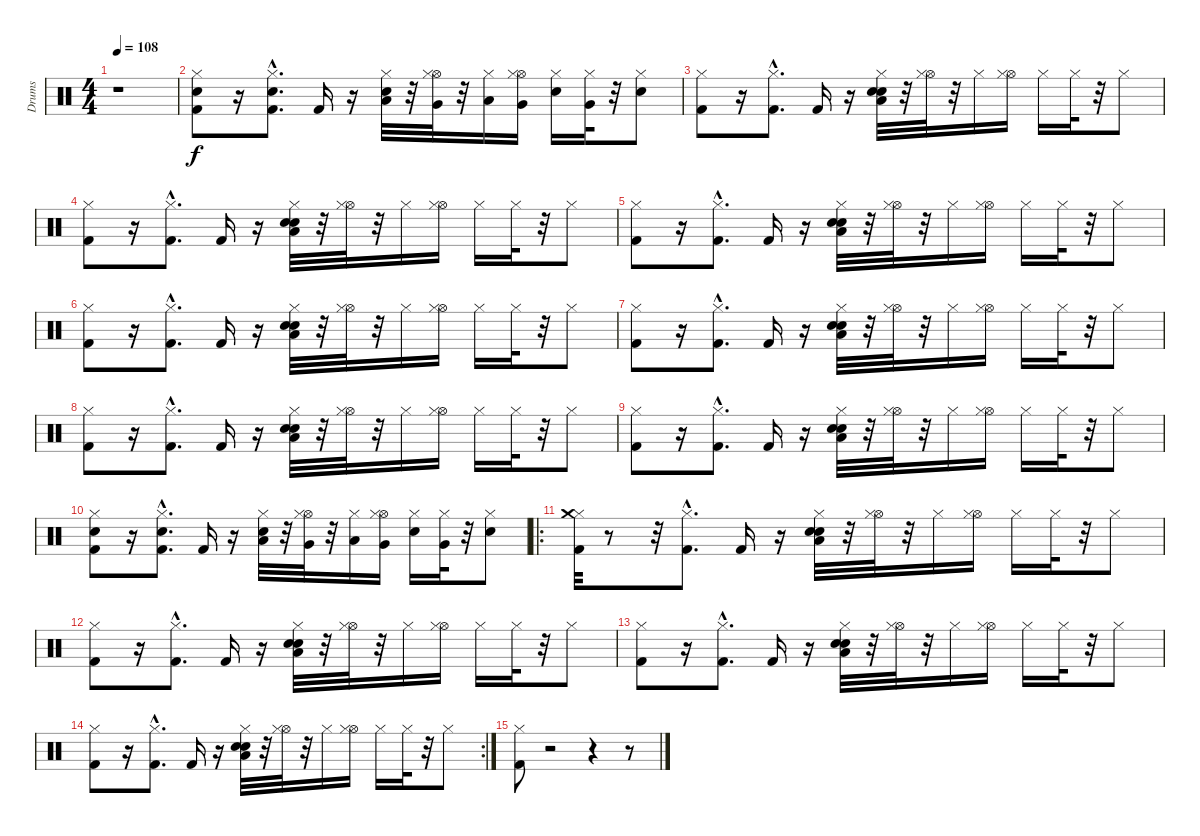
\track ("Drums" "Drums") {instrument percussion}
\staff {score}
\articulation defaults
\ts (4 4)
\tempo 108
\clef neutral
\ks c
r.1{dy f} |
("Kick (hit) 2" "Snare (hit) 2" "Hi-Hat (closed)").8 r.16 ("Kick (hit) 2"{hac} "Electric Snare (hit)"{hac} "Hi-Hat (closed)"{hac}).8{d} "Kick (hit) 2".16 r.16 ("Snare (hit) 2" "Low Tom (hit)" "Hi-Hat (closed)").32 r.32 ("Very Low Tom (hit)" "Hi-Hat (open)" "Hi-Hat (closed)").32 r.32 ("Hi-Hat (closed)" "Low Floor Tom (hit)").16 ("Hi-Hat (open)" "Very Low Tom (hit)" "Hi-Hat (closed)").16 ("Electric Snare (hit)" "Hi-Hat (closed)").16 ("Very Low Tom (hit)" "Hi-Hat (closed)").32 r.32 ("Snare (hit) 2" "Hi-Hat (closed)").8 |
("Hi-Hat (closed)" "Kick (hit) 2").8 r.16 ("Kick (hit) 2"{hac} "Hi-Hat (closed)"{hac}).8{d} "Kick (hit) 2".16 r.16 ("Low Floor Tom (hit)" "Electric Snare (hit)" "Snare (hit) 2" "Hi-Hat (closed)").32 r.32 ("Hi-Hat (open)" "Hi-Hat (closed)").32 r.32 "Hi-Hat (closed)".16 ("Hi-Hat (open)" "Hi-Hat (closed)").16 "Hi-Hat (closed)".16 "Hi-Hat (closed)".32 r.32 "Hi-Hat (closed)".8 |
("Hi-Hat (closed)" "Kick (hit) 2").8 r.16 ("Kick (hit) 2"{hac} "Hi-Hat (closed)"{hac}).8{d} "Kick (hit) 2".16 r.16 ("Low Floor Tom (hit)" "Electric Snare (hit)" "Snare (hit) 2" "Hi-Hat (closed)").32 r.32 ("Hi-Hat (open)" "Hi-Hat (closed)").32 r.32 "Hi-Hat (closed)".16 ("Hi-Hat (open)" "Hi-Hat (closed)").16 "Hi-Hat (closed)".16 "Hi-Hat (closed)".32 r.32 "Hi-Hat (closed)".8 |
("Hi-Hat (closed)" "Kick (hit) 2").8 r.16 ("Kick (hit) 2"{hac} "Hi-Hat (closed)"{hac}).8{d} "Kick (hit) 2".16 r.16 ("Low Floor Tom (hit)" "Electric Snare (hit)" "Snare (hit) 2" "Hi-Hat (closed)").32 r.32 ("Hi-Hat (open)" "Hi-Hat (closed)").32 r.32 "Hi-Hat (closed)".16 ("Hi-Hat (open)" "Hi-Hat (closed)").16 "Hi-Hat (closed)".16 "Hi-Hat (closed)".32 r.32 "Hi-Hat (closed)".8 |
("Hi-Hat (closed)" "Kick (hit) 2").8 r.16 ("Kick (hit) 2"{hac} "Hi-Hat (closed)"{hac}).8{d} "Kick (hit) 2".16 r.16 ("Low Floor Tom (hit)" "Electric Snare (hit)" "Snare (hit) 2" "Hi-Hat (closed)").32 r.32 ("Hi-Hat (open)" "Hi-Hat (closed)").32 r.32 "Hi-Hat (closed)".16 ("Hi-Hat (open)" "Hi-Hat (closed)").16 "Hi-Hat (closed)".16 "Hi-Hat (closed)".32 r.32 "Hi-Hat (closed)".8 |
("Hi-Hat (closed)" "Kick (hit) 2").8 r.16 ("Kick (hit) 2"{hac} "Hi-Hat (closed)"{hac}).8{d} "Kick (hit) 2".16 r.16 ("Low Floor Tom (hit)" "Electric Snare (hit)" "Snare (hit) 2" "Hi-Hat (closed)").32 r.32 ("Hi-Hat (open)" "Hi-Hat (closed)").32 r.32 "Hi-Hat (closed)".16 ("Hi-Hat (open)" "Hi-Hat (closed)").16 "Hi-Hat (closed)".16 "Hi-Hat (closed)".32 r.32 "Hi-Hat (closed)".8 |
("Hi-Hat (closed)" "Kick (hit) 2").8 r.16 ("Kick (hit) 2"{hac} "Hi-Hat (closed)"{hac}).8{d} "Kick (hit) 2".16 r.16 ("Low Floor Tom (hit)" "Electric Snare (hit)" "Snare (hit) 2" "Hi-Hat (closed)").32 r.32 ("Hi-Hat (open)" "Hi-Hat (closed)").32 r.32 "Hi-Hat (closed)".16 ("Hi-Hat (open)" "Hi-Hat (closed)").16 "Hi-Hat (closed)".16 "Hi-Hat (closed)".32 r.32 "Hi-Hat (closed)".8 |
("Hi-Hat (closed)" "Kick (hit) 2").8 r.16 ("Kick (hit) 2"{hac} "Hi-Hat (closed)"{hac}).8{d} "Kick (hit) 2".16 r.16 ("Low Floor Tom (hit)" "Electric Snare (hit)" "Snare (hit) 2" "Hi-Hat (closed)").32 r.32 ("Hi-Hat (open)" "Hi-Hat (closed)").32 r.32 "Hi-Hat (closed)".16 ("Hi-Hat (open)" "Hi-Hat (closed)").16 "Hi-Hat (closed)".16 "Hi-Hat (closed)".32 r.32 "Hi-Hat (closed)".8 |
("Kick (hit) 2" "Snare (hit) 2" "Hi-Hat (closed)").8 r.16 ("Kick (hit) 2"{hac} "Electric Snare (hit)"{hac} "Hi-Hat (closed)"{hac}).8{d} "Kick (hit) 2".16 r.16 ("Snare (hit) 2" "Low Tom (hit)" "Hi-Hat (closed)").32 r.32 ("Very Low Tom (hit)" "Hi-Hat (open)" "Hi-Hat (closed)").32 r.32 ("Hi-Hat (closed)" "Low Floor Tom (hit)").16 ("Hi-Hat (open)" "Very Low Tom (hit)" "Hi-Hat (closed)").16 ("Electric Snare (hit)" "Hi-Hat (closed)").16 ("Very Low Tom (hit)" "Hi-Hat (closed)").32 r.32 ("Snare (hit) 2" "Hi-Hat (closed)").8 |
\ro
("Hi-Hat (closed)" "Kick (hit) 2" "Crash medium (hit)").32 r.8 r.32 ("Kick (hit) 2"{hac} "Hi-Hat (closed)"{hac}).8{d} "Kick (hit) 2".16 r.16 ("Low Floor Tom (hit)" "Electric Snare (hit)" "Snare (hit) 2" "Hi-Hat (closed)").32 r.32 ("Hi-Hat (open)" "Hi-Hat (closed)").32 r.32 "Hi-Hat (closed)".16 ("Hi-Hat (open)" "Hi-Hat (closed)").16 "Hi-Hat (closed)".16 "Hi-Hat (closed)".32 r.32 "Hi-Hat (closed)".8 |
("Hi-Hat (closed)" "Kick (hit) 2").8 r.16 ("Kick (hit) 2"{hac} "Hi-Hat (closed)"{hac}).8{d} "Kick (hit) 2".16 r.16 ("Low Floor Tom (hit)" "Electric Snare (hit)" "Snare (hit) 2" "Hi-Hat (closed)").32 r.32 ("Hi-Hat (open)" "Hi-Hat (closed)").32 r.32 "Hi-Hat (closed)".16 ("Hi-Hat (open)" "Hi-Hat (closed)").16 "Hi-Hat (closed)".16 "Hi-Hat (closed)".32 r.32 "Hi-Hat (closed)".8 |
("Hi-Hat (closed)" "Kick (hit) 2").8 r.16 ("Kick (hit) 2"{hac} "Hi-Hat (closed)"{hac}).8{d} "Kick (hit) 2".16 r.16 ("Low Floor Tom (hit)" "Electric Snare (hit)" "Snare (hit) 2" "Hi-Hat (closed)").32 r.32 ("Hi-Hat (open)" "Hi-Hat (closed)").32 r.32 "Hi-Hat (closed)".16 ("Hi-Hat (open)" "Hi-Hat (closed)").16 "Hi-Hat (closed)".16 "Hi-Hat (closed)".32 r.32 "Hi-Hat (closed)".8 |
\rc 2
("Hi-Hat (closed)" "Kick (hit) 2").8 r.16 ("Kick (hit) 2"{hac} "Hi-Hat (closed)"{hac}).8{d} "Kick (hit) 2".16 r.16 ("Low Floor Tom (hit)" "Electric Snare (hit)" "Snare (hit) 2" "Hi-Hat (closed)").32 r.32 ("Hi-Hat (open)" "Hi-Hat (closed)").32 r.32 "Hi-Hat (closed)".16 ("Hi-Hat (open)" "Hi-Hat (closed)").16 "Hi-Hat (closed)".16 "Hi-Hat (closed)".32 r.32 "Hi-Hat (closed)".8 |
("Hi-Hat (closed)" "Kick (hit) 2").8 r.2 r.4 r.8
